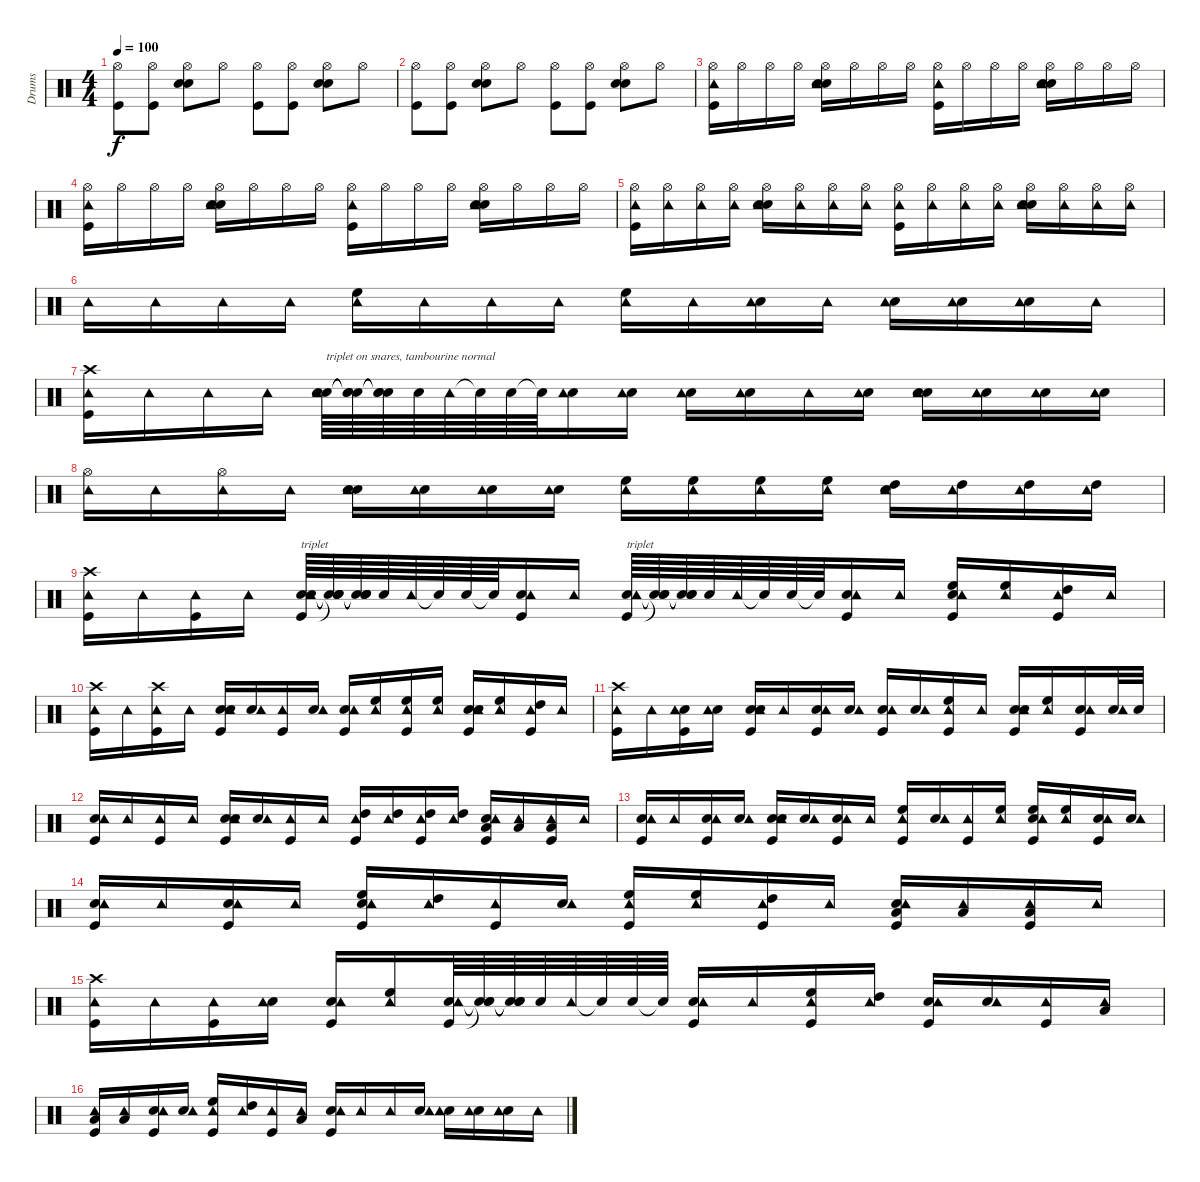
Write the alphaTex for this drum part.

\track ("Drums" "Drums") {instrument percussion}
\staff {score}
\articulation defaults
\ts (4 4)
\tempo 100
\clef neutral
\ks c
("Hi-Hat (open)" "Kick (hit)").8{dy f} ("Hi-Hat (open)" "Kick (hit)").8 ("Hi-Hat (open)" "Hand Clap (hit)" "Snare (hit) 2").8 "Hi-Hat (open)".8 ("Hi-Hat (open)" "Kick (hit)").8 ("Hi-Hat (open)" "Kick (hit)").8 ("Hi-Hat (open)" "Hand Clap (hit)" "Snare (hit) 2").8 "Hi-Hat (open)".8 |
("Hi-Hat (open)" "Kick (hit)").8 ("Hi-Hat (open)" "Kick (hit)").8 ("Hi-Hat (open)" "Hand Clap (hit)" "Snare (hit) 2").8 "Hi-Hat (open)".8 ("Hi-Hat (open)" "Kick (hit)").8 ("Hi-Hat (open)" "Kick (hit)").8 ("Hi-Hat (open)" "Hand Clap (hit)" "Snare (hit) 2").8 "Hi-Hat (open)".8 |
("Hi-Hat (open)" "Tambourine (hit)" "Kick (hit)").16 "Hi-Hat (open)".16 "Hi-Hat (open)".16 "Hi-Hat (open)".16 ("Hi-Hat (open)" "Hand Clap (hit)" "Snare (hit) 2" "Tambourine (hit)").16 "Hi-Hat (open)".16 "Hi-Hat (open)".16 "Hi-Hat (open)".16 ("Hi-Hat (open)" "Tambourine (hit)" "Kick (hit)").16 "Hi-Hat (open)".16 "Hi-Hat (open)".16 "Hi-Hat (open)".16 ("Hi-Hat (open)" "Hand Clap (hit)" "Snare (hit) 2" "Tambourine (hit)").16 "Hi-Hat (open)".16 "Hi-Hat (open)".16 "Hi-Hat (open)".16 |
("Hi-Hat (open)" "Tambourine (hit)" "Kick (hit)").16 "Hi-Hat (open)".16 "Hi-Hat (open)".16 "Hi-Hat (open)".16 ("Hi-Hat (open)" "Hand Clap (hit)" "Snare (hit) 2" "Tambourine (hit)").16 "Hi-Hat (open)".16 "Hi-Hat (open)".16 "Hi-Hat (open)".16 ("Hi-Hat (open)" "Tambourine (hit)" "Kick (hit)").16 "Hi-Hat (open)".16 "Hi-Hat (open)".16 "Hi-Hat (open)".16 ("Hi-Hat (open)" "Hand Clap (hit)" "Snare (hit) 2" "Tambourine (hit)").16 "Hi-Hat (open)".16 "Hi-Hat (open)".16 "Hi-Hat (open)".16 |
("Hi-Hat (open)" "Tambourine (hit)" "Kick (hit)").16 ("Hi-Hat (open)" "Tambourine (hit)").16 ("Hi-Hat (open)" "Tambourine (hit)").16 ("Hi-Hat (open)" "Tambourine (hit)").16 ("Hi-Hat (open)" "Hand Clap (hit)" "Snare (hit) 2" "Tambourine (hit)").16 ("Hi-Hat (open)" "Tambourine (hit)").16 ("Hi-Hat (open)" "Tambourine (hit)").16 ("Hi-Hat (open)" "Tambourine (hit)").16 ("Hi-Hat (open)" "Tambourine (hit)" "Kick (hit)").16 ("Hi-Hat (open)" "Tambourine (hit)").16 ("Hi-Hat (open)" "Tambourine (hit)").16 ("Hi-Hat (open)" "Tambourine (hit)").16 ("Hi-Hat (open)" "Hand Clap (hit)" "Snare (hit) 2" "Tambourine (hit)").16 ("Hi-Hat (open)" "Tambourine (hit)").16 ("Hi-Hat (open)" "Tambourine (hit)").16 ("Hi-Hat (open)" "Tambourine (hit)").16 |
"Tambourine (hit)".16 "Tambourine (hit)".16 "Tambourine (hit)".16 "Tambourine (hit)".16 ("High Floor Tom (hit)" "Tambourine (hit)").16 "Tambourine (hit)".16 "Tambourine (hit)".16 "Tambourine (hit)".16 ("High Floor Tom (hit)" "Tambourine (hit)").16 "Tambourine (hit)".16 ("Snare (hit) 2" "Tambourine (hit)").16 "Tambourine (hit)".16 ("Snare (hit) 2" "Tambourine (hit)").16 ("Snare (hit) 2" "Tambourine (hit)").16 ("Snare (hit) 2" "Tambourine (hit)").16 "Tambourine (hit)".16 |
("Crash high (hit)" "Tambourine (hit)" "Kick (hit)").16 "Tambourine (hit)".16 "Tambourine (hit)".16 "Tambourine (hit)".16 ("Snare (hit) 2" "Hand Clap (hit)" "Tambourine (hit)").64{txt "triplet on snares, tambourine normal"} ("Snare (hit)"{t} "Snare (hit)"{t} "Snare (hit)"{t}).64 ("Snare (hit)"{t} "Snare (hit)"{t} "Snare (hit)"{t}).64 "Snare (hit) 2".64 "Tambourine (hit)".64 "Snare (hit)"{t}.64 "Snare (hit) 2".64 "Snare (hit)"{t}.64 ("Snare (hit) 2" "Tambourine (hit)").16 ("Snare (hit) 2" "Tambourine (hit)").16 ("Snare (hit) 2" "Tambourine (hit)").16 ("Snare (hit) 2" "Tambourine (hit)").16 "Tambourine (hit)".16 ("Snare (hit) 2" "Tambourine (hit)").16 ("Snare (hit) 2" "Hand Clap (hit)" "Tambourine (hit)").16 ("Snare (hit) 2" "Tambourine (hit)").16 ("Snare (hit) 2" "Tambourine (hit)").16 ("Snare (hit) 2" "Tambourine (hit)").16 |
("Hi-Hat (open)" "Tambourine (hit)").16 "Tambourine (hit)".16 ("Hi-Hat (open)" "Tambourine (hit)").16 "Tambourine (hit)".16 ("Snare (hit) 2" "Hand Clap (hit)" "Tambourine (hit)").16 ("Snare (hit) 2" "Tambourine (hit)").16 ("Snare (hit) 2" "Tambourine (hit)").16 ("Snare (hit) 2" "Tambourine (hit)").16 ("High Floor Tom (hit)" "Tambourine (hit)").16 ("High Floor Tom (hit)" "Tambourine (hit)").16 ("High Floor Tom (hit)" "Tambourine (hit)").16 ("High Floor Tom (hit)" "Tambourine (hit)").16 ("High Tom (hit)" "Hand Clap (hit)" "Tambourine (hit)").16 ("High Tom (hit)" "Tambourine (hit)").16 ("High Tom (hit)" "Tambourine (hit)").16 ("High Tom (hit)" "Tambourine (hit)").16 |
("Crash high (hit)" "Tambourine (hit)" "Kick (hit)").16 "Tambourine (hit)".16 ("Tambourine (hit)" "Kick (hit)").16 "Tambourine (hit)".16 ("Snare (hit) 2" "Hand Clap (hit)" "Tambourine (hit)" "Kick (hit)").64{txt "triplet"} ("Snare (hit)"{t} "Snare (hit)"{t} "Snare (hit)"{t} "Snare (hit)"{t}).64 ("Snare (hit)"{t} "Snare (hit)"{t} "Snare (hit)"{t} "Snare (hit)"{t}).64 "Snare (hit) 2".64 "Tambourine (hit)".64 "Snare (hit)"{t}.64 "Snare (hit) 2".64 "Snare (hit)"{t}.64 ("Snare (hit) 2" "Tambourine (hit)" "Kick (hit)").16 "Tambourine (hit)".16 ("Snare (hit) 2" "Tambourine (hit)" "Kick (hit)").64{txt "triplet"} ("Snare (hit)"{t} "Snare (hit)"{t} "Snare (hit)"{t}).64 ("Snare (hit)"{t} "Snare (hit)"{t} "Snare (hit)"{t}).64 "Snare (hit) 2".64 "Tambourine (hit)".64 "Snare (hit)"{t}.64 "Snare (hit) 2".64 "Snare (hit)"{t}.64 ("Snare (hit) 2" "Tambourine (hit)" "Kick (hit)").16 "Tambourine (hit)".16 ("High Floor Tom (hit)" "Hand Clap (hit)" "Tambourine (hit)" "Kick (hit)").16 ("High Floor Tom (hit)" "Tambourine (hit)").16 ("High Tom (hit)" "Tambourine (hit)" "Kick (hit)").16 "Tambourine (hit)".16 |
("Crash high (hit)" "Tambourine (hit)" "Kick (hit)").16 "Tambourine (hit)".16 ("Crash high (hit)" "Tambourine (hit)" "Kick (hit)").16 "Tambourine (hit)".16 ("Hand Clap (hit)" "Snare (hit) 2" "Tambourine (hit)" "Kick (hit)").16 ("Snare (hit) 2" "Tambourine (hit)").16 ("Tambourine (hit)" "Kick (hit)").16 ("Snare (hit) 2" "Tambourine (hit)").16 ("Snare (hit) 2" "Tambourine (hit)" "Kick (hit)").16 ("High Floor Tom (hit)" "Tambourine (hit)").16 ("High Floor Tom (hit)" "Tambourine (hit)" "Kick (hit)").16 ("High Floor Tom (hit)" "Tambourine (hit)").16 ("Hand Clap (hit)" "Snare (hit) 2" "Tambourine (hit)" "Kick (hit)").16 ("High Floor Tom (hit)" "Tambourine (hit)").16 ("High Tom (hit)" "Tambourine (hit)" "Kick (hit)").16 "Tambourine (hit)".16 |
("Crash high (hit)" "Tambourine (hit)" "Kick (hit)").16 "Tambourine (hit)".16 ("Snare (hit) 2" "Tambourine (hit)" "Kick (hit)").16 ("Snare (hit) 2" "Tambourine (hit)").16 ("Hand Clap (hit)" "Snare (hit) 2" "Tambourine (hit)" "Kick (hit)").16 "Tambourine (hit)".16 ("Snare (hit) 2" "Tambourine (hit)" "Kick (hit)").16 ("Snare (hit) 2" "Tambourine (hit)").16 ("Snare (hit) 2" "Tambourine (hit)" "Kick (hit)").16 ("Snare (hit) 2" "Tambourine (hit)").16 ("High Floor Tom (hit)" "Tambourine (hit)" "Kick (hit)").16 "Tambourine (hit)".16 ("Hand Clap (hit)" "Snare (hit) 2" "Tambourine (hit)" "Kick (hit)").16 ("High Floor Tom (hit)" "Tambourine (hit)").16 ("Snare (hit) 2" "Tambourine (hit)" "Kick (hit)").16 ("Snare (hit) 2" "Tambourine (hit)").32 "Snare (hit) 2".32 |
("Snare (hit) 2" "Tambourine (hit)" "Kick (hit)").16 "Tambourine (hit)".16 ("Tambourine (hit)" "Kick (hit)").16 "Tambourine (hit)".16 ("Hand Clap (hit)" "Snare (hit) 2" "Tambourine (hit)" "Kick (hit)").16 ("Snare (hit) 2" "Tambourine (hit)").16 ("Tambourine (hit)" "Kick (hit)").16 "Tambourine (hit)".16 ("High Tom (hit)" "Tambourine (hit)" "Kick (hit)").16 ("High Tom (hit)" "Tambourine (hit)").16 ("High Tom (hit)" "Tambourine (hit)" "Kick (hit)").16 ("High Tom (hit)" "Tambourine (hit)").16 ("Hand Clap (hit)" "Low Floor Tom (hit)" "Tambourine (hit)" "Kick (hit)").16 ("Low Floor Tom (hit)" "Tambourine (hit)").16 ("Low Floor Tom (hit)" "Tambourine (hit)" "Kick (hit)").16 "Tambourine (hit)".16 |
("Hand Clap (hit)" "Tambourine (hit)" "Kick (hit)").16 "Tambourine (hit)".16 ("Snare (hit) 2" "Tambourine (hit)" "Kick (hit)").16 ("Snare (hit) 2" "Tambourine (hit)").16 ("Hand Clap (hit)" "Snare (hit) 2" "Tambourine (hit)" "Kick (hit)").16 ("Snare (hit) 2" "Tambourine (hit)").16 ("Snare (hit) 2" "Tambourine (hit)" "Kick (hit)").16 "Tambourine (hit)".16 ("High Floor Tom (hit)" "Tambourine (hit)" "Kick (hit)").16 ("Snare (hit) 2" "Tambourine (hit)").16 ("Tambourine (hit)" "Kick (hit)").16 ("High Floor Tom (hit)" "Tambourine (hit)").16 ("High Floor Tom (hit)" "Hand Clap (hit)" "Tambourine (hit)" "Kick (hit)").16 ("High Floor Tom (hit)" "Tambourine (hit)").16 ("Snare (hit) 2" "Tambourine (hit)" "Kick (hit)").16 ("Snare (hit) 2" "Tambourine (hit)").16 |
("Snare (hit) 2" "Tambourine (hit)" "Kick (hit)").16 "Tambourine (hit)".16 ("Snare (hit) 2" "Tambourine (hit)" "Kick (hit)").16 "Tambourine (hit)".16 ("High Floor Tom (hit)" "Hand Clap (hit)" "Tambourine (hit)" "Kick (hit)").16 ("High Tom (hit)" "Tambourine (hit)").16 ("Tambourine (hit)" "Kick (hit)").16 ("Snare (hit) 2" "Tambourine (hit)").16 ("High Floor Tom (hit)" "Tambourine (hit)" "Kick (hit)").16 ("High Floor Tom (hit)" "Tambourine (hit)").16 ("High Tom (hit)" "Tambourine (hit)" "Kick (hit)").16 "Tambourine (hit)".16 ("Hand Clap (hit)" "Tambourine (hit)" "Low Floor Tom (hit)" "Kick (hit)").16 ("Tambourine (hit)" "Low Floor Tom (hit)").16 ("Tambourine (hit)" "Low Floor Tom (hit)" "Kick (hit)").16 "Tambourine (hit)".16 |
("Crash high (hit)" "Tambourine (hit)" "Kick (hit)").16 "Tambourine (hit)".16 ("Tambourine (hit)" "Kick (hit)").16 ("Snare (hit) 2" "Tambourine (hit)").16 ("Snare (hit) 2" "Tambourine (hit)" "Kick (hit)").16 ("High Floor Tom (hit)" "Tambourine (hit)").16 ("Snare (hit) 2" "Tambourine (hit)" "Kick (hit)").64 ("Snare (hit)"{t} "Snare (hit)"{t} "Snare (hit)"{t}).64 ("Snare (hit)"{t} "Snare (hit)"{t} "Snare (hit)"{t}).64 "Snare (hit) 2".64 "Tambourine (hit)".64 "Snare (hit)"{t}.64 "Snare (hit) 2".64 "Snare (hit)"{t}.64 ("Snare (hit) 2" "Tambourine (hit)" "Kick (hit)").16 "Tambourine (hit)".16 ("High Floor Tom (hit)" "Tambourine (hit)" "Kick (hit)").16 ("High Tom (hit)" "Tambourine (hit)").16 ("Snare (hit) 2" "Tambourine (hit)" "Kick (hit)").16 ("Snare (hit) 2" "Tambourine (hit)").16 ("Tambourine (hit)" "Kick (hit)").16 ("Tambourine (hit)" "Low Floor Tom (hit)").16 |
("Tambourine (hit)" "Low Floor Tom (hit)" "Kick (hit)").16 ("Tambourine (hit)" "Low Floor Tom (hit)").16 ("Snare (hit) 2" "Tambourine (hit)" "Kick (hit)").16 ("Snare (hit) 2" "Tambourine (hit)").16 ("High Floor Tom (hit)" "Tambourine (hit)" "Kick (hit)").16 ("High Tom (hit)" "Tambourine (hit)").16 ("Tambourine (hit)" "Kick (hit)").16 ("Tambourine (hit)" "Low Floor Tom (hit)").16 ("Snare (hit) 2" "Tambourine (hit)" "Kick (hit)").16 "Tambourine (hit)".16 "Tambourine (hit)".16 ("Snare (hit) 2" "Tambourine (hit)").16 ("Snare (hit) 2" "Tambourine (hit)").16 ("Snare (hit) 2" "Tambourine (hit)").16 ("Snare (hit) 2" "Tambourine (hit)").16 "Tambourine (hit)".16
